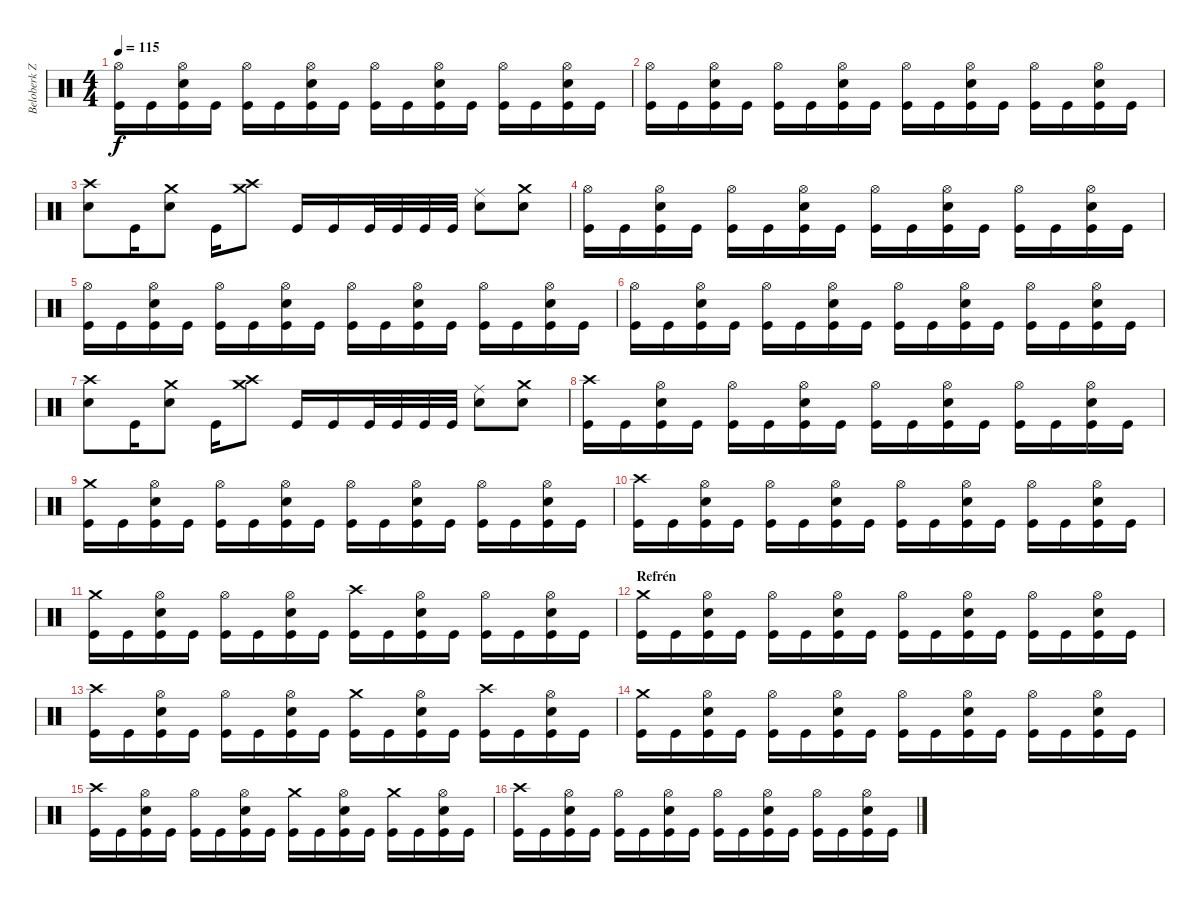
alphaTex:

\track ("Beloberk Zsolt /dob/" "Beloberk Z") {instrument percussion}
\staff {score}
\articulation defaults
\ts (4 4)
\tempo 115
\clef neutral
\ks c
("Hi-Hat (open)" "Kick (hit)").16{dy f} "Kick (hit)".16 ("Hi-Hat (open)" "Electric Snare (hit)" "Kick (hit)").16 "Kick (hit)".16 ("Hi-Hat (open)" "Kick (hit)").16 "Kick (hit)".16 ("Hi-Hat (open)" "Electric Snare (hit)" "Kick (hit)").16 "Kick (hit)".16 ("Hi-Hat (open)" "Kick (hit)").16 "Kick (hit)".16 ("Hi-Hat (open)" "Electric Snare (hit)" "Kick (hit)").16 "Kick (hit)".16 ("Hi-Hat (open)" "Kick (hit)").16 "Kick (hit)".16 ("Hi-Hat (open)" "Electric Snare (hit)" "Kick (hit)").16 "Kick (hit)".16 |
("Hi-Hat (open)" "Kick (hit)").16 "Kick (hit)".16 ("Hi-Hat (open)" "Electric Snare (hit)" "Kick (hit)").16 "Kick (hit)".16 ("Hi-Hat (open)" "Kick (hit)").16 "Kick (hit)".16 ("Hi-Hat (open)" "Electric Snare (hit)" "Kick (hit)").16 "Kick (hit)".16 ("Hi-Hat (open)" "Kick (hit)").16 "Kick (hit)".16 ("Hi-Hat (open)" "Electric Snare (hit)" "Kick (hit)").16 "Kick (hit)".16 ("Hi-Hat (open)" "Kick (hit)").16 "Kick (hit)".16 ("Hi-Hat (open)" "Electric Snare (hit)" "Kick (hit)").16 "Kick (hit)".16 |
("Crash high (hit)" "Snare (hit) 2").8 "Kick (hit)".16 ("Crash medium (hit)" "Snare (hit) 2").8 "Kick (hit)".16 ("Crash medium (hit)" "Crash high (hit)").8 "Kick (hit)".16 "Kick (hit)".16 "Kick (hit)".32 "Kick (hit)".32 "Kick (hit)".32 "Kick (hit)".32 ("Ride (middle)" "Snare (hit) 2").8 ("Crash medium (hit)" "Snare (hit) 2").8 |
("Hi-Hat (open)" "Kick (hit)").16 "Kick (hit)".16 ("Hi-Hat (open)" "Electric Snare (hit)" "Kick (hit)").16 "Kick (hit)".16 ("Hi-Hat (open)" "Kick (hit)").16 "Kick (hit)".16 ("Hi-Hat (open)" "Electric Snare (hit)" "Kick (hit)").16 "Kick (hit)".16 ("Hi-Hat (open)" "Kick (hit)").16 "Kick (hit)".16 ("Hi-Hat (open)" "Electric Snare (hit)" "Kick (hit)").16 "Kick (hit)".16 ("Hi-Hat (open)" "Kick (hit)").16 "Kick (hit)".16 ("Hi-Hat (open)" "Electric Snare (hit)" "Kick (hit)").16 "Kick (hit)".16 |
("Hi-Hat (open)" "Kick (hit)").16 "Kick (hit)".16 ("Hi-Hat (open)" "Electric Snare (hit)" "Kick (hit)").16 "Kick (hit)".16 ("Hi-Hat (open)" "Kick (hit)").16 "Kick (hit)".16 ("Hi-Hat (open)" "Electric Snare (hit)" "Kick (hit)").16 "Kick (hit)".16 ("Hi-Hat (open)" "Kick (hit)").16 "Kick (hit)".16 ("Hi-Hat (open)" "Electric Snare (hit)" "Kick (hit)").16 "Kick (hit)".16 ("Hi-Hat (open)" "Kick (hit)").16 "Kick (hit)".16 ("Hi-Hat (open)" "Electric Snare (hit)" "Kick (hit)").16 "Kick (hit)".16 |
("Hi-Hat (open)" "Kick (hit)").16 "Kick (hit)".16 ("Hi-Hat (open)" "Electric Snare (hit)" "Kick (hit)").16 "Kick (hit)".16 ("Hi-Hat (open)" "Kick (hit)").16 "Kick (hit)".16 ("Hi-Hat (open)" "Electric Snare (hit)" "Kick (hit)").16 "Kick (hit)".16 ("Hi-Hat (open)" "Kick (hit)").16 "Kick (hit)".16 ("Hi-Hat (open)" "Electric Snare (hit)" "Kick (hit)").16 "Kick (hit)".16 ("Hi-Hat (open)" "Kick (hit)").16 "Kick (hit)".16 ("Hi-Hat (open)" "Electric Snare (hit)" "Kick (hit)").16 "Kick (hit)".16 |
("Crash high (hit)" "Snare (hit) 2").8 "Kick (hit)".16 ("Crash medium (hit)" "Snare (hit) 2").8 "Kick (hit)".16 ("Crash medium (hit)" "Crash high (hit)").8 "Kick (hit)".16 "Kick (hit)".16 "Kick (hit)".32 "Kick (hit)".32 "Kick (hit)".32 "Kick (hit)".32 ("Ride (middle)" "Snare (hit) 2").8 ("Crash medium (hit)" "Snare (hit) 2").8 |
("Crash high (hit)" "Kick (hit)").16 "Kick (hit)".16 ("Hi-Hat (open)" "Electric Snare (hit)" "Kick (hit)").16 "Kick (hit)".16 ("Hi-Hat (open)" "Kick (hit)").16 "Kick (hit)".16 ("Hi-Hat (open)" "Electric Snare (hit)" "Kick (hit)").16 "Kick (hit)".16 ("Hi-Hat (open)" "Kick (hit)").16 "Kick (hit)".16 ("Hi-Hat (open)" "Electric Snare (hit)" "Kick (hit)").16 "Kick (hit)".16 ("Hi-Hat (open)" "Kick (hit)").16 "Kick (hit)".16 ("Hi-Hat (open)" "Electric Snare (hit)" "Kick (hit)").16 "Kick (hit)".16 |
("Crash medium (hit)" "Kick (hit)").16 "Kick (hit)".16 ("Hi-Hat (open)" "Electric Snare (hit)" "Kick (hit)").16 "Kick (hit)".16 ("Hi-Hat (open)" "Kick (hit)").16 "Kick (hit)".16 ("Hi-Hat (open)" "Electric Snare (hit)" "Kick (hit)").16 "Kick (hit)".16 ("Hi-Hat (open)" "Kick (hit)").16 "Kick (hit)".16 ("Hi-Hat (open)" "Electric Snare (hit)" "Kick (hit)").16 "Kick (hit)".16 ("Hi-Hat (open)" "Kick (hit)").16 "Kick (hit)".16 ("Hi-Hat (open)" "Electric Snare (hit)" "Kick (hit)").16 "Kick (hit)".16 |
("Crash high (hit)" "Kick (hit)").16 "Kick (hit)".16 ("Hi-Hat (open)" "Electric Snare (hit)" "Kick (hit)").16 "Kick (hit)".16 ("Hi-Hat (open)" "Kick (hit)").16 "Kick (hit)".16 ("Hi-Hat (open)" "Electric Snare (hit)" "Kick (hit)").16 "Kick (hit)".16 ("Hi-Hat (open)" "Kick (hit)").16 "Kick (hit)".16 ("Hi-Hat (open)" "Electric Snare (hit)" "Kick (hit)").16 "Kick (hit)".16 ("Hi-Hat (open)" "Kick (hit)").16 "Kick (hit)".16 ("Hi-Hat (open)" "Electric Snare (hit)" "Kick (hit)").16 "Kick (hit)".16 |
("Crash medium (hit)" "Kick (hit)").16 "Kick (hit)".16 ("Hi-Hat (open)" "Electric Snare (hit)" "Kick (hit)").16 "Kick (hit)".16 ("Hi-Hat (open)" "Kick (hit)").16 "Kick (hit)".16 ("Hi-Hat (open)" "Electric Snare (hit)" "Kick (hit)").16 "Kick (hit)".16 ("Crash high (hit)" "Kick (hit)").16 "Kick (hit)".16 ("Hi-Hat (open)" "Electric Snare (hit)" "Kick (hit)").16 "Kick (hit)".16 ("Hi-Hat (open)" "Kick (hit)").16 "Kick (hit)".16 ("Hi-Hat (open)" "Electric Snare (hit)" "Kick (hit)").16 "Kick (hit)".16 |
\section ("" "Refrén")
("Crash medium (hit)" "Kick (hit)").16 "Kick (hit)".16 ("Hi-Hat (open)" "Electric Snare (hit)" "Kick (hit)").16 "Kick (hit)".16 ("Hi-Hat (open)" "Kick (hit)").16 "Kick (hit)".16 ("Hi-Hat (open)" "Electric Snare (hit)" "Kick (hit)").16 "Kick (hit)".16 ("Hi-Hat (open)" "Kick (hit)").16 "Kick (hit)".16 ("Hi-Hat (open)" "Electric Snare (hit)" "Kick (hit)").16 "Kick (hit)".16 ("Hi-Hat (open)" "Kick (hit)").16 "Kick (hit)".16 ("Hi-Hat (open)" "Electric Snare (hit)" "Kick (hit)").16 "Kick (hit)".16 |
("Crash high (hit)" "Kick (hit)").16 "Kick (hit)".16 ("Hi-Hat (open)" "Electric Snare (hit)" "Kick (hit)").16 "Kick (hit)".16 ("Hi-Hat (open)" "Kick (hit)").16 "Kick (hit)".16 ("Hi-Hat (open)" "Electric Snare (hit)" "Kick (hit)").16 "Kick (hit)".16 ("Crash medium (hit)" "Kick (hit)").16 "Kick (hit)".16 ("Hi-Hat (open)" "Electric Snare (hit)" "Kick (hit)").16 "Kick (hit)".16 ("Crash high (hit)" "Kick (hit)").16 "Kick (hit)".16 ("Hi-Hat (open)" "Electric Snare (hit)" "Kick (hit)").16 "Kick (hit)".16 |
("Crash medium (hit)" "Kick (hit)").16 "Kick (hit)".16 ("Hi-Hat (open)" "Electric Snare (hit)" "Kick (hit)").16 "Kick (hit)".16 ("Hi-Hat (open)" "Kick (hit)").16 "Kick (hit)".16 ("Hi-Hat (open)" "Electric Snare (hit)" "Kick (hit)").16 "Kick (hit)".16 ("Hi-Hat (open)" "Kick (hit)").16 "Kick (hit)".16 ("Hi-Hat (open)" "Electric Snare (hit)" "Kick (hit)").16 "Kick (hit)".16 ("Hi-Hat (open)" "Kick (hit)").16 "Kick (hit)".16 ("Hi-Hat (open)" "Electric Snare (hit)" "Kick (hit)").16 "Kick (hit)".16 |
("Crash high (hit)" "Kick (hit)").16 "Kick (hit)".16 ("Hi-Hat (open)" "Electric Snare (hit)" "Kick (hit)").16 "Kick (hit)".16 ("Hi-Hat (open)" "Kick (hit)").16 "Kick (hit)".16 ("Hi-Hat (open)" "Electric Snare (hit)" "Kick (hit)").16 "Kick (hit)".16 ("Crash medium (hit)" "Kick (hit)").16 "Kick (hit)".16 ("Hi-Hat (open)" "Electric Snare (hit)" "Kick (hit)").16 "Kick (hit)".16 ("Crash medium (hit)" "Kick (hit)").16 "Kick (hit)".16 ("Hi-Hat (open)" "Electric Snare (hit)" "Kick (hit)").16 "Kick (hit)".16 |
("Crash high (hit)" "Kick (hit)").16 "Kick (hit)".16 ("Hi-Hat (open)" "Electric Snare (hit)" "Kick (hit)").16 "Kick (hit)".16 ("Hi-Hat (open)" "Kick (hit)").16 "Kick (hit)".16 ("Hi-Hat (open)" "Electric Snare (hit)" "Kick (hit)").16 "Kick (hit)".16 ("Hi-Hat (open)" "Kick (hit)").16 "Kick (hit)".16 ("Hi-Hat (open)" "Electric Snare (hit)" "Kick (hit)").16 "Kick (hit)".16 ("Hi-Hat (open)" "Kick (hit)").16 "Kick (hit)".16 ("Hi-Hat (open)" "Electric Snare (hit)" "Kick (hit)").16 "Kick (hit)".16
